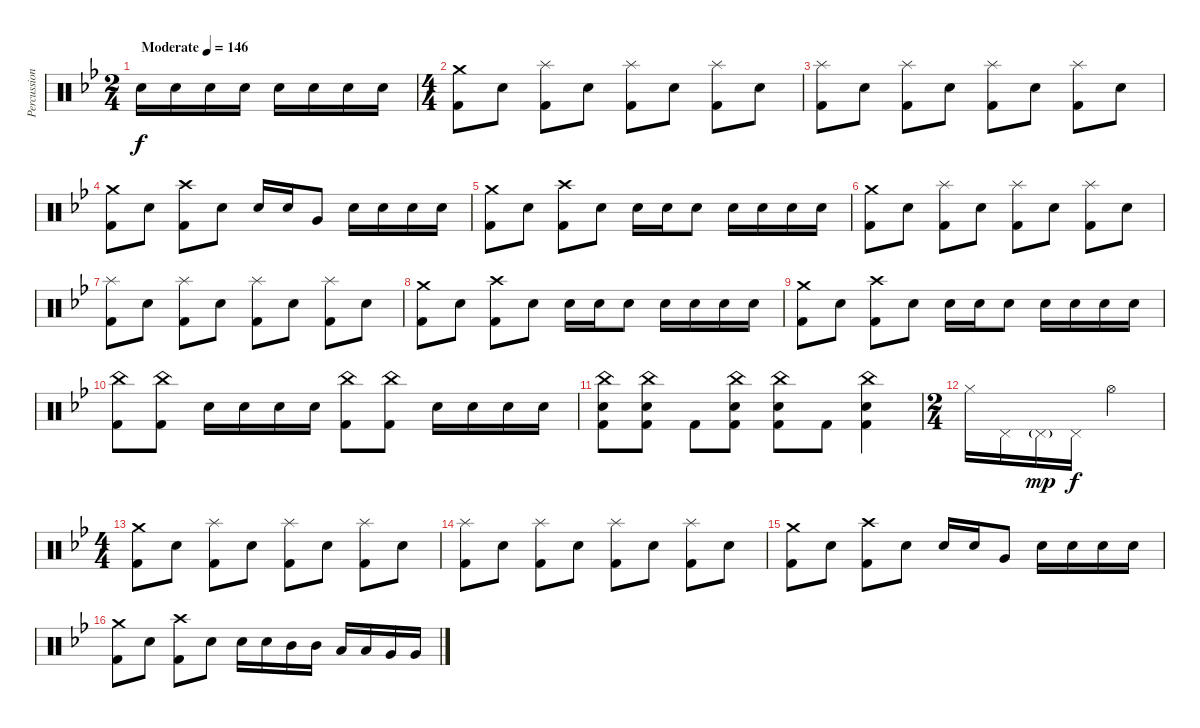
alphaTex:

\track ("Percussion" "Percussion") {instrument percussion}
\staff {score}
\articulation defaults
\ts (2 4)
\tempo (146 "Moderate")
\clef neutral
\ks gminor "Snare (hit) 2".16{dy f} "Snare (hit) 2".16 "Snare (hit) 2".16 "Snare (hit) 2".16 "Snare (hit) 2".16 "Snare (hit) 2".16 "Snare (hit) 2".16 "Snare (hit) 2".16
|
\ts (4 4)
("Crash medium (hit)" "Kick (hit) 2").8 "Snare (hit) 2".8 ("Splash (hit)" "Kick (hit) 2").8 "Snare (hit) 2".8 ("Splash (hit)" "Kick (hit) 2").8 "Snare (hit) 2".8 ("Splash (hit)" "Kick (hit) 2").8 "Snare (hit) 2".8 |
("Splash (hit)" "Kick (hit) 2").8 "Snare (hit) 2".8 ("Splash (hit)" "Kick (hit) 2").8 "Snare (hit) 2".8 ("Splash (hit)" "Kick (hit) 2").8 "Snare (hit) 2".8 ("Splash (hit)" "Kick (hit) 2").8 "Snare (hit) 2".8 |
("Crash medium (hit)" "Kick (hit) 2").8 "Snare (hit) 2".8 ("Crash high (hit)" "Kick (hit) 2").8 "Snare (hit) 2".8 "Snare (hit) 2".16 "Snare (hit) 2".16 "Very Low Tom (hit)".8 "Snare (hit) 2".16 "Snare (hit) 2".16 "Snare (hit) 2".16 "Snare (hit) 2".16 |
("Crash medium (hit)" "Kick (hit) 2").8 "Snare (hit) 2".8 ("Crash high (hit)" "Kick (hit) 2").8 "Snare (hit) 2".8 "Snare (hit) 2".16 "Snare (hit) 2".16 "Snare (hit) 2".8 "Snare (hit) 2".16 "Snare (hit) 2".16 "Snare (hit) 2".16 "Snare (hit) 2".16 |
("Crash medium (hit)" "Kick (hit) 2").8 "Snare (hit) 2".8 ("Splash (hit)" "Kick (hit) 2").8 "Snare (hit) 2".8 ("Splash (hit)" "Kick (hit) 2").8 "Snare (hit) 2".8 ("Splash (hit)" "Kick (hit) 2").8 "Snare (hit) 2".8 |
("Splash (hit)" "Kick (hit) 2").8 "Snare (hit) 2".8 ("Splash (hit)" "Kick (hit) 2").8 "Snare (hit) 2".8 ("Splash (hit)" "Kick (hit) 2").8 "Snare (hit) 2".8 ("Splash (hit)" "Kick (hit) 2").8 "Snare (hit) 2".8 |
("Crash medium (hit)" "Kick (hit) 2").8 "Snare (hit) 2".8 ("Crash high (hit)" "Kick (hit) 2").8 "Snare (hit) 2".8 "Snare (hit) 2".16 "Snare (hit) 2".16 "Snare (hit) 2".8 "Snare (hit) 2".16 "Snare (hit) 2".16 "Snare (hit) 2".16 "Snare (hit) 2".16 |
("Crash medium (hit)" "Kick (hit) 2").8 "Snare (hit) 2".8 ("Crash high (hit)" "Kick (hit) 2").8 "Snare (hit) 2".8 "Snare (hit) 2".16 "Snare (hit) 2".16 "Snare (hit) 2".8 "Snare (hit) 2".16 "Snare (hit) 2".16 "Snare (hit) 2".16 "Snare (hit) 2".16 |
("China (hit)" "Kick (hit) 2").8 ("China (hit)" "Kick (hit) 2").8 "Snare (hit) 2".16 "Snare (hit) 2".16 "Snare (hit) 2".16 "Snare (hit) 2".16 ("China (hit)" "Kick (hit) 2").8 ("China (hit)" "Kick (hit) 2").8 "Snare (hit) 2".16 "Snare (hit) 2".16 "Snare (hit) 2".16 "Snare (hit) 2".16 |
("China (hit)" "Snare (hit) 2" "Kick (hit) 2").8 ("China (hit)" "Snare (hit) 2" "Kick (hit) 2").8 "Kick (hit) 2".8 ("China (hit)" "Snare (hit) 2" "Kick (hit) 2").8 ("China (hit)" "Snare (hit) 2" "Kick (hit) 2").8 "Kick (hit) 2".8 ("China (hit)" "Snare (hit) 2" "Kick (hit) 2").4 |
\ts (2 4)
"Hi-Hat (closed)".16 "Pedal Hi-Hat (hit)".16 "Pedal Hi-Hat (hit)"{g}.16{dy mp} "Pedal Hi-Hat (hit)".16{dy f} "Hi-Hat (open)".4 |
\ts (4 4)
("Crash medium (hit)" "Kick (hit) 2").8 "Snare (hit) 2".8 ("Splash (hit)" "Kick (hit) 2").8 "Snare (hit) 2".8 ("Splash (hit)" "Kick (hit) 2").8 "Snare (hit) 2".8 ("Splash (hit)" "Kick (hit) 2").8 "Snare (hit) 2".8 |
("Splash (hit)" "Kick (hit) 2").8 "Snare (hit) 2".8 ("Splash (hit)" "Kick (hit) 2").8 "Snare (hit) 2".8 ("Splash (hit)" "Kick (hit) 2").8 "Snare (hit) 2".8 ("Splash (hit)" "Kick (hit) 2").8 "Snare (hit) 2".8 |
("Crash medium (hit)" "Kick (hit) 2").8 "Snare (hit) 2".8 ("Crash high (hit)" "Kick (hit) 2").8 "Snare (hit) 2".8 "Snare (hit) 2".16 "Snare (hit) 2".16 "Very Low Tom (hit)".8 "Snare (hit) 2".16 "Snare (hit) 2".16 "Snare (hit) 2".16 "Snare (hit) 2".16 |
("Crash medium (hit)" "Kick (hit) 2").8 "Snare (hit) 2".8 ("Crash high (hit)" "Kick (hit) 2").8 "Snare (hit) 2".8 "Snare (hit) 2".16 "Snare (hit) 2".16 "Mid Tom (hit)".16 "Mid Tom (hit)".16 "Low Tom (hit)".16 "Low Tom (hit)".16 "Very Low Tom (hit)".16 "Very Low Tom (hit)".16
